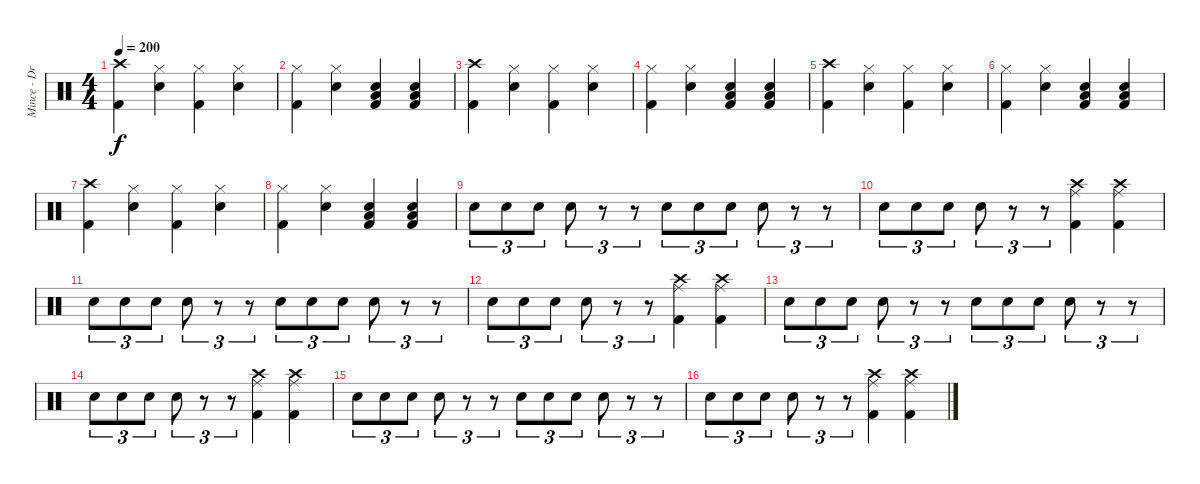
\track ("Mince - Drums" "Mince - Dr") {instrument percussion}
\staff {score}
\articulation defaults
\ts (4 4)
\tempo 200
\clef neutral
\ks c
("Crash high (hit)" "Kick (hit) 2").4{dy f} ("Hi-Hat (closed)" "Electric Snare (hit)").4 ("Hi-Hat (closed)" "Kick (hit) 2").4 ("Hi-Hat (closed)" "Electric Snare (hit)").4 |
("Hi-Hat (closed)" "Kick (hit) 2").4 ("Hi-Hat (closed)" "Electric Snare (hit)").4 ("Electric Snare (hit)" "Low Tom (hit)" "Kick (hit) 2").4 ("Electric Snare (hit)" "Low Tom (hit)" "Kick (hit) 2").4 |
("Crash high (hit)" "Kick (hit) 2").4 ("Hi-Hat (closed)" "Electric Snare (hit)").4 ("Hi-Hat (closed)" "Kick (hit) 2").4 ("Hi-Hat (closed)" "Electric Snare (hit)").4 |
("Hi-Hat (closed)" "Kick (hit) 2").4 ("Hi-Hat (closed)" "Electric Snare (hit)").4 ("Electric Snare (hit)" "Low Tom (hit)" "Kick (hit) 2").4 ("Electric Snare (hit)" "Low Tom (hit)" "Kick (hit) 2").4 |
("Crash high (hit)" "Kick (hit) 2").4 ("Hi-Hat (closed)" "Electric Snare (hit)").4 ("Hi-Hat (closed)" "Kick (hit) 2").4 ("Hi-Hat (closed)" "Electric Snare (hit)").4 |
("Hi-Hat (closed)" "Kick (hit) 2").4 ("Hi-Hat (closed)" "Electric Snare (hit)").4 ("Electric Snare (hit)" "Low Tom (hit)" "Kick (hit) 2").4 ("Electric Snare (hit)" "Low Tom (hit)" "Kick (hit) 2").4 |
("Crash high (hit)" "Kick (hit) 2").4 ("Hi-Hat (closed)" "Electric Snare (hit)").4 ("Hi-Hat (closed)" "Kick (hit) 2").4 ("Hi-Hat (closed)" "Electric Snare (hit)").4 |
("Hi-Hat (closed)" "Kick (hit) 2").4 ("Hi-Hat (closed)" "Electric Snare (hit)").4 ("Electric Snare (hit)" "Low Tom (hit)" "Kick (hit) 2").4 ("Electric Snare (hit)" "Low Tom (hit)" "Kick (hit) 2").4 |
"Electric Snare (hit)".8{tu (3 2)} "Electric Snare (hit)".8{tu (3 2)} "Electric Snare (hit)".8{tu (3 2)} "Electric Snare (hit)".8{tu (3 2)} r.8{tu (3 2)} r.8{tu (3 2)} "Electric Snare (hit)".8{tu (3 2)} "Electric Snare (hit)".8{tu (3 2)} "Electric Snare (hit)".8{tu (3 2)} "Electric Snare (hit)".8{tu (3 2)} r.8{tu (3 2)} r.8{tu (3 2)} |
"Electric Snare (hit)".8{tu (3 2)} "Electric Snare (hit)".8{tu (3 2)} "Electric Snare (hit)".8{tu (3 2)} "Electric Snare (hit)".8{tu (3 2)} r.8{tu (3 2)} r.8{tu (3 2)} ("Crash high (hit)" "Ride (middle)" "Kick (hit) 2").4 ("Crash high (hit)" "Ride (middle)" "Kick (hit) 2").4 |
"Electric Snare (hit)".8{tu (3 2)} "Electric Snare (hit)".8{tu (3 2)} "Electric Snare (hit)".8{tu (3 2)} "Electric Snare (hit)".8{tu (3 2)} r.8{tu (3 2)} r.8{tu (3 2)} "Electric Snare (hit)".8{tu (3 2)} "Electric Snare (hit)".8{tu (3 2)} "Electric Snare (hit)".8{tu (3 2)} "Electric Snare (hit)".8{tu (3 2)} r.8{tu (3 2)} r.8{tu (3 2)} |
"Electric Snare (hit)".8{tu (3 2)} "Electric Snare (hit)".8{tu (3 2)} "Electric Snare (hit)".8{tu (3 2)} "Electric Snare (hit)".8{tu (3 2)} r.8{tu (3 2)} r.8{tu (3 2)} ("Crash high (hit)" "Ride (middle)" "Kick (hit) 2").4 ("Crash high (hit)" "Ride (middle)" "Kick (hit) 2").4 |
"Electric Snare (hit)".8{tu (3 2)} "Electric Snare (hit)".8{tu (3 2)} "Electric Snare (hit)".8{tu (3 2)} "Electric Snare (hit)".8{tu (3 2)} r.8{tu (3 2)} r.8{tu (3 2)} "Electric Snare (hit)".8{tu (3 2)} "Electric Snare (hit)".8{tu (3 2)} "Electric Snare (hit)".8{tu (3 2)} "Electric Snare (hit)".8{tu (3 2)} r.8{tu (3 2)} r.8{tu (3 2)} |
"Electric Snare (hit)".8{tu (3 2)} "Electric Snare (hit)".8{tu (3 2)} "Electric Snare (hit)".8{tu (3 2)} "Electric Snare (hit)".8{tu (3 2)} r.8{tu (3 2)} r.8{tu (3 2)} ("Crash high (hit)" "Ride (middle)" "Kick (hit) 2").4 ("Crash high (hit)" "Ride (middle)" "Kick (hit) 2").4 |
"Electric Snare (hit)".8{tu (3 2)} "Electric Snare (hit)".8{tu (3 2)} "Electric Snare (hit)".8{tu (3 2)} "Electric Snare (hit)".8{tu (3 2)} r.8{tu (3 2)} r.8{tu (3 2)} "Electric Snare (hit)".8{tu (3 2)} "Electric Snare (hit)".8{tu (3 2)} "Electric Snare (hit)".8{tu (3 2)} "Electric Snare (hit)".8{tu (3 2)} r.8{tu (3 2)} r.8{tu (3 2)} |
"Electric Snare (hit)".8{tu (3 2)} "Electric Snare (hit)".8{tu (3 2)} "Electric Snare (hit)".8{tu (3 2)} "Electric Snare (hit)".8{tu (3 2)} r.8{tu (3 2)} r.8{tu (3 2)} ("Crash high (hit)" "Ride (middle)" "Kick (hit) 2").4 ("Crash high (hit)" "Ride (middle)" "Kick (hit) 2").4
